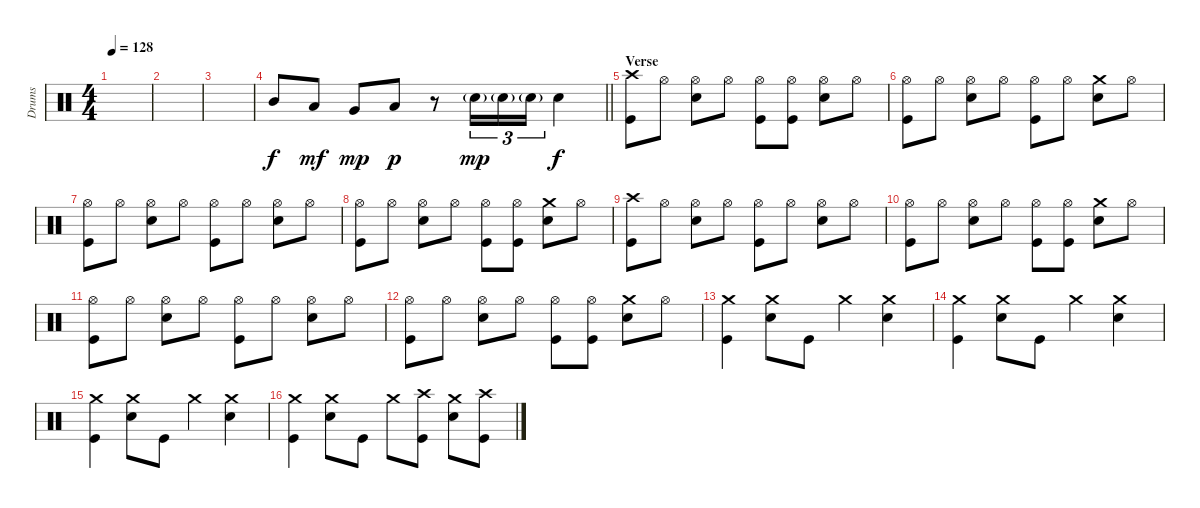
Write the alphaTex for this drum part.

\track ("Drums" "Drums") {instrument percussion}
\staff {score}
\articulation defaults
\ts (4 4)
\tempo 128
\clef neutral
\ks c
|
|
|
\barLineRight lightlight "Mid Tom (hit)".8 "Low Tom (hit)".8{dy mf} "Very Low Tom (hit)".8{dy mp} "Low Floor Tom (hit)".8{dy p}
r.8 "Snare (hit) 2"{g}.16{tu (3 2) dy mp} "Snare (hit) 2"{g}.16{tu (3 2)} "Snare (hit) 2"{g}.16{tu (3 2)} "Snare (hit) 2".4{dy f} |
\section ("" "Verse")
("Crash high (hit)" "Kick (hit)").8 "Hi-Hat (open)".8 ("Hi-Hat (open)" "Snare (hit) 2").8 "Hi-Hat (open)".8 ("Hi-Hat (open)" "Kick (hit)").8 ("Hi-Hat (open)" "Kick (hit)").8 ("Hi-Hat (open)" "Snare (hit) 2").8 "Hi-Hat (open)".8 |
("Hi-Hat (open)" "Kick (hit)").8 "Hi-Hat (open)".8 ("Hi-Hat (open)" "Snare (hit) 2").8 "Hi-Hat (open)".8 ("Hi-Hat (open)" "Kick (hit)").8 "Hi-Hat (open)".8 ("Crash medium (hit)" "Snare (hit) 2").8 "Hi-Hat (open)".8 |
("Hi-Hat (open)" "Kick (hit)").8 "Hi-Hat (open)".8 ("Hi-Hat (open)" "Snare (hit) 2").8 "Hi-Hat (open)".8 ("Hi-Hat (open)" "Kick (hit)").8 "Hi-Hat (open)".8 ("Hi-Hat (open)" "Snare (hit) 2").8 "Hi-Hat (open)".8 |
("Hi-Hat (open)" "Kick (hit)").8 "Hi-Hat (open)".8 ("Hi-Hat (open)" "Snare (hit) 2").8 "Hi-Hat (open)".8 ("Hi-Hat (open)" "Kick (hit)").8 ("Hi-Hat (open)" "Kick (hit)").8 ("Crash medium (hit)" "Snare (hit) 2").8 "Hi-Hat (open)".8 |
("Crash high (hit)" "Kick (hit)").8 "Hi-Hat (open)".8 ("Hi-Hat (open)" "Snare (hit) 2").8 "Hi-Hat (open)".8 ("Hi-Hat (open)" "Kick (hit)").8 "Hi-Hat (open)".8 ("Hi-Hat (open)" "Snare (hit) 2").8 "Hi-Hat (open)".8 |
("Hi-Hat (open)" "Kick (hit)").8 "Hi-Hat (open)".8 ("Hi-Hat (open)" "Snare (hit) 2").8 "Hi-Hat (open)".8 ("Hi-Hat (open)" "Kick (hit)").8 ("Hi-Hat (open)" "Kick (hit)").8 ("Crash medium (hit)" "Snare (hit) 2").8 "Hi-Hat (open)".8 |
("Hi-Hat (open)" "Kick (hit)").8 "Hi-Hat (open)".8 ("Hi-Hat (open)" "Snare (hit) 2").8 "Hi-Hat (open)".8 ("Hi-Hat (open)" "Kick (hit)").8 "Hi-Hat (open)".8 ("Hi-Hat (open)" "Snare (hit) 2").8 "Hi-Hat (open)".8 |
("Hi-Hat (open)" "Kick (hit)").8 "Hi-Hat (open)".8 ("Hi-Hat (open)" "Snare (hit) 2").8 "Hi-Hat (open)".8 ("Hi-Hat (open)" "Kick (hit)").8 ("Hi-Hat (open)" "Kick (hit)").8 ("Crash medium (hit)" "Snare (hit) 2").8 "Hi-Hat (open)".8 |
("Crash medium (hit)" "Kick (hit)").4 ("Crash medium (hit)" "Snare (hit) 2").8 "Kick (hit)".8 "Crash medium (hit)".4 ("Crash medium (hit)" "Snare (hit) 2").4 |
("Crash medium (hit)" "Kick (hit)").4 ("Crash medium (hit)" "Snare (hit) 2").8 "Kick (hit)".8 "Crash medium (hit)".4 ("Crash medium (hit)" "Snare (hit) 2").4 |
("Crash medium (hit)" "Kick (hit)").4 ("Crash medium (hit)" "Snare (hit) 2").8 "Kick (hit)".8 "Crash medium (hit)".4 ("Crash medium (hit)" "Snare (hit) 2").4 |
("Crash medium (hit)" "Kick (hit)").4 ("Crash medium (hit)" "Snare (hit) 2").8 "Kick (hit)".8 "Crash medium (hit)".8 ("Crash high (hit)" "Kick (hit)").8 ("Crash medium (hit)" "Snare (hit) 2").8 ("Crash high (hit)" "Kick (hit)").8
